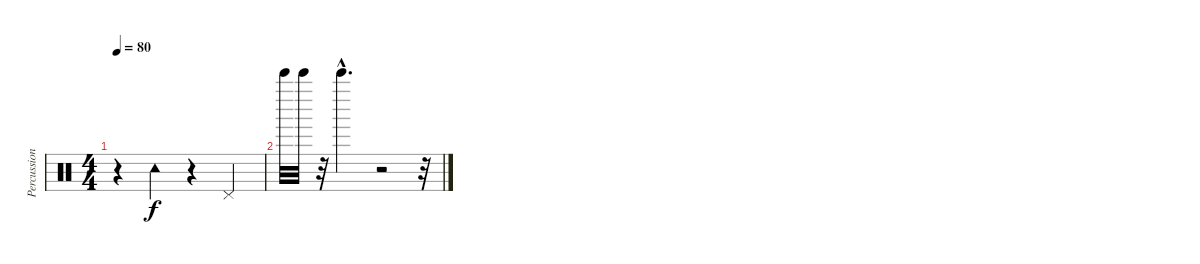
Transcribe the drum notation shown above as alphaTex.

\track ("Percussion" "Percussion") {instrument percussion}
\staff {score}
\articulation defaults
\ts (4 4)
\tempo 80
\clef neutral
\ks c
r.4{dy f} "Tambourine (hit)".4 r.4 "Pedal Hi-Hat (hit)".4 |
"Bell Tree (hit)".32 "Bell Tree (hit)".32 r.32 "Bell Tree (hit)"{hac}.4{d} r.2 r.32
